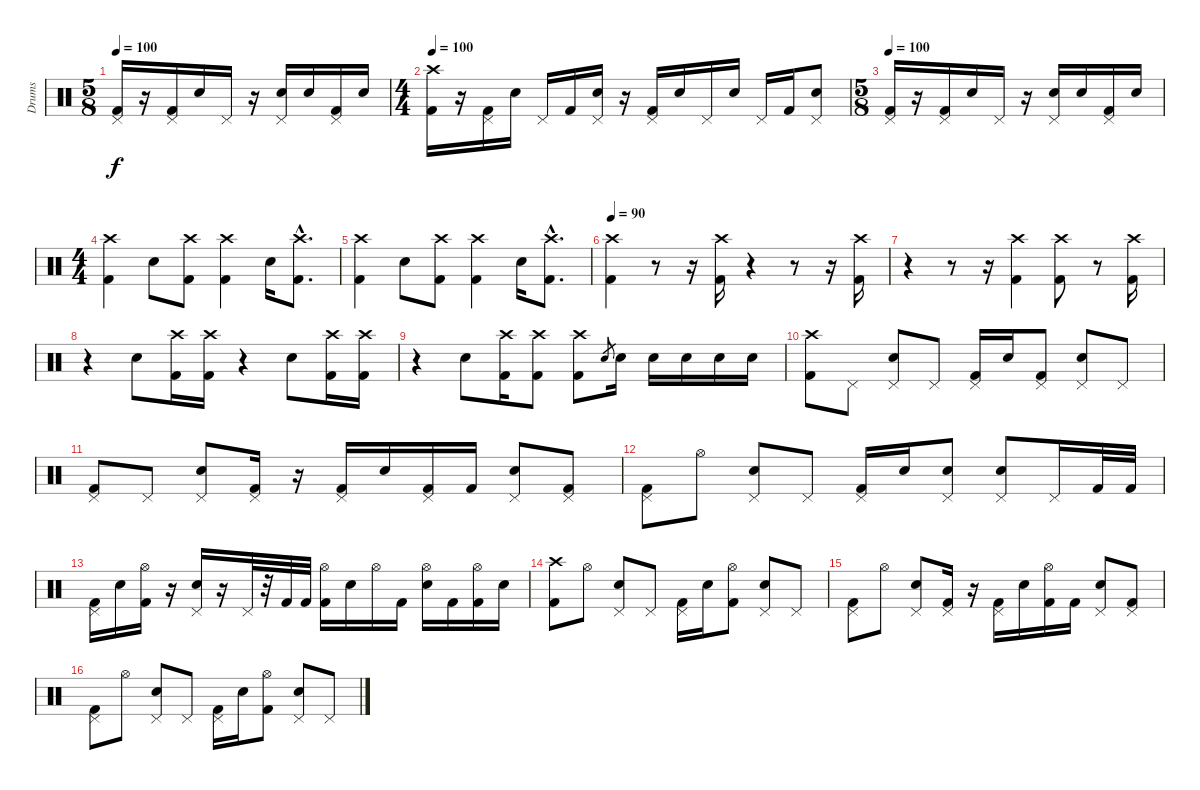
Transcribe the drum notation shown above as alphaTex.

\track ("Drums" "Drums") {instrument percussion}
\staff {score}
\articulation defaults
\ts (5 8)
\tempo 100
\clef neutral
\ks c
("Pedal Hi-Hat (hit)" "Kick (hit) 2").16{dy f} r.16 ("Pedal Hi-Hat (hit)" "Kick (hit) 2").16 "Electric Snare (hit)".16 "Pedal Hi-Hat (hit)".16 r.16 ("Pedal Hi-Hat (hit)" "Electric Snare (hit)").16 "Electric Snare (hit)".16 ("Pedal Hi-Hat (hit)" "Kick (hit) 2").16 "Electric Snare (hit)".16 |
\ts (4 4)
\tempo 100
("Kick (hit) 2" "Crash high (hit)").16 r.16 ("Pedal Hi-Hat (hit)" "Kick (hit) 2").16 "Electric Snare (hit)".16 "Pedal Hi-Hat (hit)".16 "Kick (hit) 2".16 ("Pedal Hi-Hat (hit)" "Electric Snare (hit)").16 r.16 ("Pedal Hi-Hat (hit)" "Kick (hit) 2").16 "Electric Snare (hit)".16 "Pedal Hi-Hat (hit)".16 "Electric Snare (hit)".16 "Pedal Hi-Hat (hit)".16 "Kick (hit) 2".16 ("Pedal Hi-Hat (hit)" "Electric Snare (hit)").8 |
\ts (5 8)
\tempo 100
("Pedal Hi-Hat (hit)" "Kick (hit) 2").16 r.16 ("Pedal Hi-Hat (hit)" "Kick (hit) 2").16 "Electric Snare (hit)".16 "Pedal Hi-Hat (hit)".16 r.16 ("Pedal Hi-Hat (hit)" "Electric Snare (hit)").16 "Electric Snare (hit)".16 ("Pedal Hi-Hat (hit)" "Kick (hit) 2").16 "Electric Snare (hit)".16 |
\ts (4 4)
("Crash high (hit)" "Kick (hit) 2").4 "Electric Snare (hit)".8 ("Crash high (hit)" "Kick (hit) 2").8 ("Crash high (hit)" "Kick (hit) 2").4 "Electric Snare (hit)".16 ("Crash high (hit)"{hac} "Kick (hit) 2"{hac}).8{d} |
("Crash high (hit)" "Kick (hit) 2").4 "Electric Snare (hit)".8 ("Crash high (hit)" "Kick (hit) 2").8 ("Crash high (hit)" "Kick (hit) 2").4 "Electric Snare (hit)".16 ("Crash high (hit)"{hac} "Kick (hit) 2"{hac}).8{d} |
\tempo 90
("Crash high (hit)" "Kick (hit) 2").4 r.8 r.16 ("Crash high (hit)" "Kick (hit) 2").16 r.4 r.8 r.16 ("Crash high (hit)" "Kick (hit) 2").16 |
r.4 r.8 r.16 ("Crash high (hit)" "Kick (hit) 2").4 ("Crash high (hit)" "Kick (hit) 2").8 r.8 ("Crash high (hit)" "Kick (hit) 2").16 |
r.4 "Electric Snare (hit)".8 ("Crash high (hit)" "Kick (hit) 2").16 ("Crash high (hit)" "Kick (hit) 2").16 r.4 "Electric Snare (hit)".8 ("Crash high (hit)" "Kick (hit) 2").16 ("Crash high (hit)" "Kick (hit) 2").16 |
r.4 "Electric Snare (hit)".8 ("Crash high (hit)" "Kick (hit) 2").16 ("Crash high (hit)" "Kick (hit) 2").8 ("Crash high (hit)" "Kick (hit) 2").8 "Electric Snare (hit)".8{gr} "Electric Snare (hit)".16 "Electric Snare (hit)".16 "Electric Snare (hit)".16 "Electric Snare (hit)".16 "Electric Snare (hit)".16 |
("Crash high (hit)" "Kick (hit) 2").8 "Pedal Hi-Hat (hit)".8 ("Pedal Hi-Hat (hit)" "Electric Snare (hit)").8 "Pedal Hi-Hat (hit)".8 ("Pedal Hi-Hat (hit)" "Kick (hit) 2").16 "Electric Snare (hit)".16 ("Pedal Hi-Hat (hit)" "Kick (hit) 2").8 ("Pedal Hi-Hat (hit)" "Electric Snare (hit)").8 "Pedal Hi-Hat (hit)".8 |
("Pedal Hi-Hat (hit)" "Kick (hit) 2").8 "Pedal Hi-Hat (hit)".8 ("Pedal Hi-Hat (hit)" "Electric Snare (hit)").8 ("Pedal Hi-Hat (hit)" "Kick (hit) 2").16 r.16 ("Pedal Hi-Hat (hit)" "Kick (hit) 2").16 "Electric Snare (hit)".16 ("Pedal Hi-Hat (hit)" "Kick (hit) 2").16 "Kick (hit) 2".16 ("Pedal Hi-Hat (hit)" "Electric Snare (hit)").8 ("Pedal Hi-Hat (hit)" "Kick (hit) 2").8 |
("Pedal Hi-Hat (hit)" "Kick (hit) 2").8 "Hi-Hat (open)".8 ("Pedal Hi-Hat (hit)" "Electric Snare (hit)").8 "Pedal Hi-Hat (hit)".8 ("Pedal Hi-Hat (hit)" "Kick (hit) 2").16 "Electric Snare (hit)".16 ("Pedal Hi-Hat (hit)" "Snare (hit) 2").8 ("Pedal Hi-Hat (hit)" "Electric Snare (hit)").8 "Pedal Hi-Hat (hit)".16 "Kick (hit) 2".32 "Kick (hit) 2".32 |
("Pedal Hi-Hat (hit)" "Kick (hit) 2").16 "Electric Snare (hit)".16 ("Hi-Hat (open)" "Kick (hit) 2").16 r.16 ("Pedal Hi-Hat (hit)" "Electric Snare (hit)").16 r.16 "Pedal Hi-Hat (hit)".32 r.32 "Kick (hit) 2".32 "Kick (hit) 2".32 ("Hi-Hat (open)" "Kick (hit) 2").16 "Electric Snare (hit)".16 "Hi-Hat (open)".16 "Kick (hit) 2".16 ("Hi-Hat (open)" "Electric Snare (hit)").16 "Kick (hit) 2".16 ("Hi-Hat (open)" "Kick (hit) 2").16 "Electric Snare (hit)".16 |
("Crash high (hit)" "Kick (hit) 2").8 "Hi-Hat (open)".8 ("Pedal Hi-Hat (hit)" "Electric Snare (hit)").8 "Pedal Hi-Hat (hit)".8 ("Pedal Hi-Hat (hit)" "Kick (hit) 2").16 "Electric Snare (hit)".16 ("Hi-Hat (open)" "Kick (hit) 2").8 ("Pedal Hi-Hat (hit)" "Electric Snare (hit)").8 "Pedal Hi-Hat (hit)".8 |
("Pedal Hi-Hat (hit)" "Kick (hit) 2").8 "Hi-Hat (open)".8 ("Pedal Hi-Hat (hit)" "Electric Snare (hit)").8 ("Pedal Hi-Hat (hit)" "Kick (hit) 2").16 r.16 ("Pedal Hi-Hat (hit)" "Kick (hit) 2").16 "Electric Snare (hit)".16 ("Hi-Hat (open)" "Kick (hit) 2").16 "Kick (hit) 2".16 ("Pedal Hi-Hat (hit)" "Electric Snare (hit)").8 ("Pedal Hi-Hat (hit)" "Kick (hit) 2").8 |
("Pedal Hi-Hat (hit)" "Kick (hit) 2").8 "Hi-Hat (open)".8 ("Pedal Hi-Hat (hit)" "Electric Snare (hit)").8 "Pedal Hi-Hat (hit)".8 ("Pedal Hi-Hat (hit)" "Kick (hit) 2").16 "Electric Snare (hit)".16 ("Hi-Hat (open)" "Kick (hit) 2").8 ("Pedal Hi-Hat (hit)" "Electric Snare (hit)").8 "Pedal Hi-Hat (hit)".8
